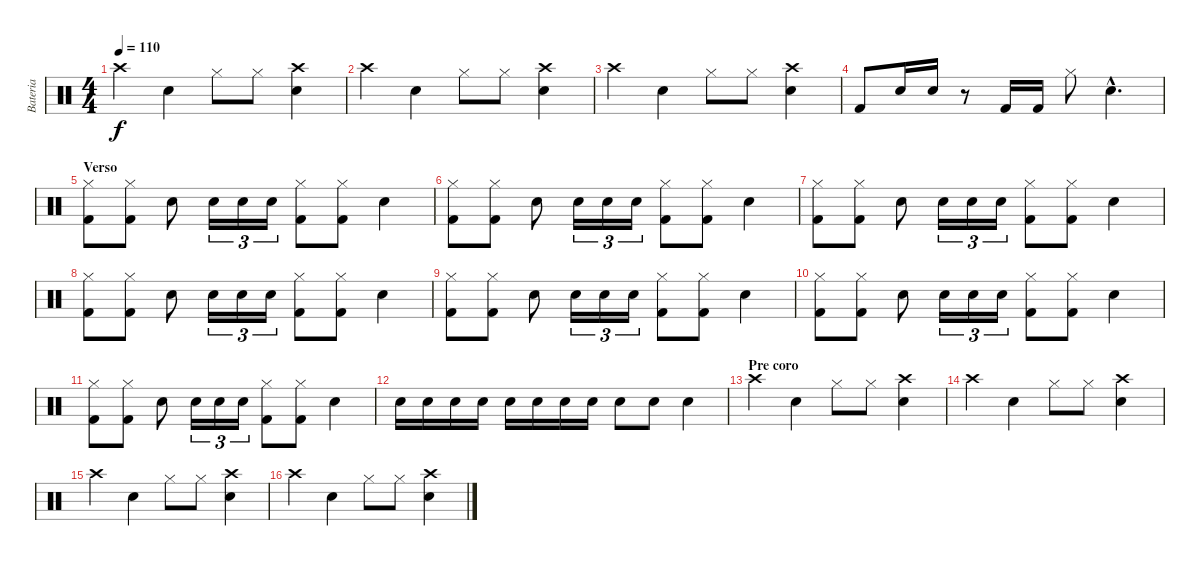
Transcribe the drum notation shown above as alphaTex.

\track ("Bateria" "Bateria") {instrument percussion}
\staff {score}
\articulation defaults
\ts (4 4)
\tempo 110
\clef neutral
\ks c "Crash high (hit)".4{dy f} "Electric Snare (hit)".4 "Hi-Hat (closed)".8 "Hi-Hat (closed)".8
("Crash high (hit)" "Electric Snare (hit)").4 |
"Crash high (hit)".4 "Electric Snare (hit)".4 "Hi-Hat (closed)".8 "Hi-Hat (closed)".8 ("Crash high (hit)" "Electric Snare (hit)").4 |
"Crash high (hit)".4 "Electric Snare (hit)".4 "Hi-Hat (closed)".8 "Hi-Hat (closed)".8 ("Crash high (hit)" "Electric Snare (hit)").4 |
"Kick (hit) 2".8 "Electric Snare (hit)".16 "Electric Snare (hit)".16 r.8 "Kick (hit) 2".16 "Kick (hit) 2".16 "Hi-Hat (closed)".8 "Electric Snare (hit)"{hac}.4{d} |
\section ("" "Verso")
("Hi-Hat (closed)" "Kick (hit) 2").8 ("Hi-Hat (closed)" "Kick (hit) 2").8 "Electric Snare (hit)".8 "Snare (hit) 2".16{tu (3 2)} "Snare (hit) 2".16{tu (3 2)} "Snare (hit) 2".16{tu (3 2)} ("Hi-Hat (closed)" "Kick (hit) 2").8 ("Hi-Hat (closed)" "Kick (hit) 2").8 "Electric Snare (hit)".4 |
("Hi-Hat (closed)" "Kick (hit) 2").8 ("Hi-Hat (closed)" "Kick (hit) 2").8 "Electric Snare (hit)".8 "Snare (hit) 2".16{tu (3 2)} "Snare (hit) 2".16{tu (3 2)} "Snare (hit) 2".16{tu (3 2)} ("Hi-Hat (closed)" "Kick (hit) 2").8 ("Hi-Hat (closed)" "Kick (hit) 2").8 "Electric Snare (hit)".4 |
("Hi-Hat (closed)" "Kick (hit) 2").8 ("Hi-Hat (closed)" "Kick (hit) 2").8 "Electric Snare (hit)".8 "Snare (hit) 2".16{tu (3 2)} "Snare (hit) 2".16{tu (3 2)} "Snare (hit) 2".16{tu (3 2)} ("Hi-Hat (closed)" "Kick (hit) 2").8 ("Hi-Hat (closed)" "Kick (hit) 2").8 "Electric Snare (hit)".4 |
("Hi-Hat (closed)" "Kick (hit) 2").8 ("Hi-Hat (closed)" "Kick (hit) 2").8 "Electric Snare (hit)".8 "Snare (hit) 2".16{tu (3 2)} "Snare (hit) 2".16{tu (3 2)} "Snare (hit) 2".16{tu (3 2)} ("Hi-Hat (closed)" "Kick (hit) 2").8 ("Hi-Hat (closed)" "Kick (hit) 2").8 "Electric Snare (hit)".4 |
("Hi-Hat (closed)" "Kick (hit) 2").8 ("Hi-Hat (closed)" "Kick (hit) 2").8 "Electric Snare (hit)".8 "Snare (hit) 2".16{tu (3 2)} "Snare (hit) 2".16{tu (3 2)} "Snare (hit) 2".16{tu (3 2)} ("Hi-Hat (closed)" "Kick (hit) 2").8 ("Hi-Hat (closed)" "Kick (hit) 2").8 "Electric Snare (hit)".4 |
("Hi-Hat (closed)" "Kick (hit) 2").8 ("Hi-Hat (closed)" "Kick (hit) 2").8 "Electric Snare (hit)".8 "Snare (hit) 2".16{tu (3 2)} "Snare (hit) 2".16{tu (3 2)} "Snare (hit) 2".16{tu (3 2)} ("Hi-Hat (closed)" "Kick (hit) 2").8 ("Hi-Hat (closed)" "Kick (hit) 2").8 "Electric Snare (hit)".4 |
("Hi-Hat (closed)" "Kick (hit) 2").8 ("Hi-Hat (closed)" "Kick (hit) 2").8 "Electric Snare (hit)".8 "Snare (hit) 2".16{tu (3 2)} "Snare (hit) 2".16{tu (3 2)} "Snare (hit) 2".16{tu (3 2)} ("Hi-Hat (closed)" "Kick (hit) 2").8 ("Hi-Hat (closed)" "Kick (hit) 2").8 "Electric Snare (hit)".4 |
"Electric Snare (hit)".16 "Electric Snare (hit)".16 "Electric Snare (hit)".16 "Electric Snare (hit)".16 "Electric Snare (hit)".16 "Electric Snare (hit)".16 "Electric Snare (hit)".16 "Electric Snare (hit)".16 "Electric Snare (hit)".8 "Electric Snare (hit)".8 "Electric Snare (hit)".4 |
\section ("" "Pre coro")
"Crash high (hit)".4 "Electric Snare (hit)".4 "Hi-Hat (closed)".8 "Hi-Hat (closed)".8 ("Crash high (hit)" "Electric Snare (hit)").4 |
"Crash high (hit)".4 "Electric Snare (hit)".4 "Hi-Hat (closed)".8 "Hi-Hat (closed)".8 ("Crash high (hit)" "Electric Snare (hit)").4 |
"Crash high (hit)".4 "Electric Snare (hit)".4 "Hi-Hat (closed)".8 "Hi-Hat (closed)".8 ("Crash high (hit)" "Electric Snare (hit)").4 |
"Crash high (hit)".4 "Electric Snare (hit)".4 "Hi-Hat (closed)".8 "Hi-Hat (closed)".8 ("Crash high (hit)" "Electric Snare (hit)").4
